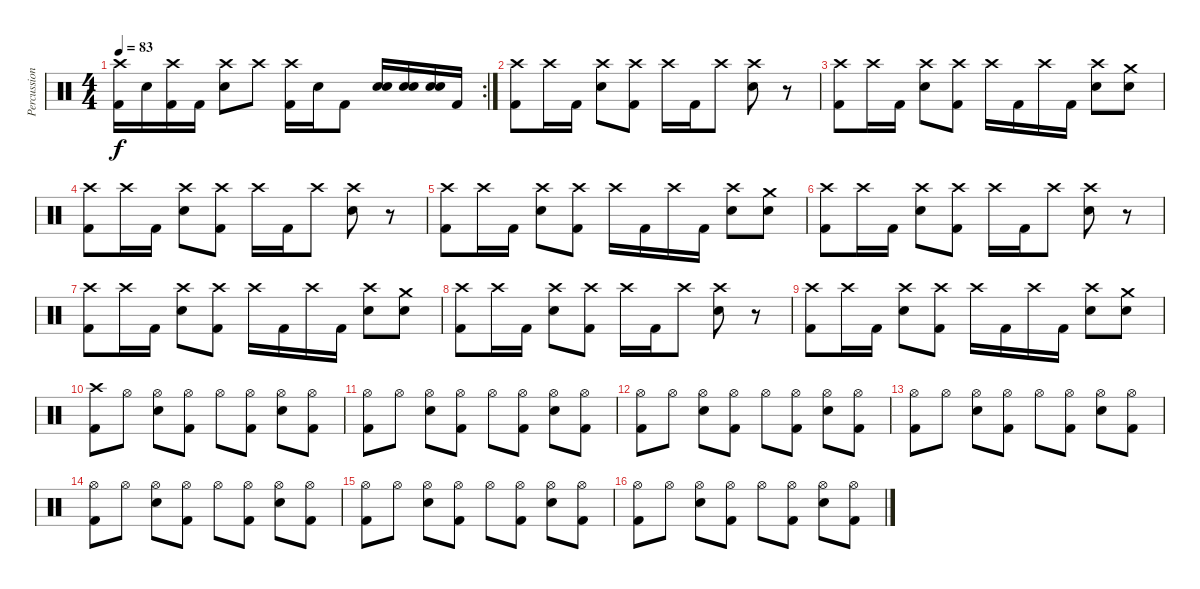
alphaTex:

\track ("Percussions" "Percussion") {instrument percussion}
\staff {score}
\articulation defaults
\rc 2
\ts (4 4)
\tempo 83
\clef neutral
\ks c
("Crash high (hit)" "Kick (hit) 2").16{dy f} "Electric Snare (hit)".16 ("Crash high (hit)" "Kick (hit) 2").16 "Kick (hit) 2".16 ("Crash high (hit)" "Electric Snare (hit)").8 "Crash high (hit)".8 ("Crash high (hit)" "Kick (hit) 2").16 "Electric Snare (hit)".16 "Kick (hit) 2".8 ("Electric Snare (hit)" "Electric Snare (hit)").16 ("Electric Snare (hit)" "Electric Snare (hit)").16 ("Electric Snare (hit)" "Electric Snare (hit)").16 "Kick (hit) 2".16 |
("Crash high (hit)" "Kick (hit) 2").8 "Crash high (hit)".16 "Kick (hit) 2".16 ("Crash high (hit)" "Electric Snare (hit)").8 ("Crash high (hit)" "Kick (hit) 2").8 "Crash high (hit)".16 "Kick (hit) 2".16 "Crash high (hit)".8 ("Crash high (hit)" "Electric Snare (hit)").8 r.8 |
("Crash high (hit)" "Kick (hit) 2").8 "Crash high (hit)".16 "Kick (hit) 2".16 ("Crash high (hit)" "Electric Snare (hit)").8 ("Crash high (hit)" "Kick (hit) 2").8 "Crash high (hit)".16 "Kick (hit) 2".16 "Crash high (hit)".16 "Kick (hit) 2".16 ("Crash high (hit)" "Electric Snare (hit)").8 ("Crash medium (hit)" "Electric Snare (hit)").8 |
("Crash high (hit)" "Kick (hit) 2").8 "Crash high (hit)".16 "Kick (hit) 2".16 ("Crash high (hit)" "Electric Snare (hit)").8 ("Crash high (hit)" "Kick (hit) 2").8 "Crash high (hit)".16 "Kick (hit) 2".16 "Crash high (hit)".8 ("Crash high (hit)" "Electric Snare (hit)").8 r.8 |
("Crash high (hit)" "Kick (hit) 2").8 "Crash high (hit)".16 "Kick (hit) 2".16 ("Crash high (hit)" "Electric Snare (hit)").8 ("Crash high (hit)" "Kick (hit) 2").8 "Crash high (hit)".16 "Kick (hit) 2".16 "Crash high (hit)".16 "Kick (hit) 2".16 ("Crash high (hit)" "Electric Snare (hit)").8 ("Crash medium (hit)" "Electric Snare (hit)").8 |
("Crash high (hit)" "Kick (hit) 2").8 "Crash high (hit)".16 "Kick (hit) 2".16 ("Crash high (hit)" "Electric Snare (hit)").8 ("Crash high (hit)" "Kick (hit) 2").8 "Crash high (hit)".16 "Kick (hit) 2".16 "Crash high (hit)".8 ("Crash high (hit)" "Electric Snare (hit)").8 r.8 |
("Crash high (hit)" "Kick (hit) 2").8 "Crash high (hit)".16 "Kick (hit) 2".16 ("Crash high (hit)" "Electric Snare (hit)").8 ("Crash high (hit)" "Kick (hit) 2").8 "Crash high (hit)".16 "Kick (hit) 2".16 "Crash high (hit)".16 "Kick (hit) 2".16 ("Crash high (hit)" "Electric Snare (hit)").8 ("Crash medium (hit)" "Electric Snare (hit)").8 |
("Crash high (hit)" "Kick (hit) 2").8 "Crash high (hit)".16 "Kick (hit) 2".16 ("Crash high (hit)" "Electric Snare (hit)").8 ("Crash high (hit)" "Kick (hit) 2").8 "Crash high (hit)".16 "Kick (hit) 2".16 "Crash high (hit)".8 ("Crash high (hit)" "Electric Snare (hit)").8 r.8 |
("Crash high (hit)" "Kick (hit) 2").8 "Crash high (hit)".16 "Kick (hit) 2".16 ("Crash high (hit)" "Electric Snare (hit)").8 ("Crash high (hit)" "Kick (hit) 2").8 "Crash high (hit)".16 "Kick (hit) 2".16 "Crash high (hit)".16 "Kick (hit) 2".16 ("Crash high (hit)" "Electric Snare (hit)").8 ("Crash medium (hit)" "Electric Snare (hit)").8 |
("Crash high (hit)" "Kick (hit) 2").8 "Hi-Hat (open)".8 ("Hi-Hat (open)" "Electric Snare (hit)").8 ("Hi-Hat (open)" "Kick (hit) 2").8 "Hi-Hat (open)".8 ("Hi-Hat (open)" "Kick (hit) 2").8 ("Hi-Hat (open)" "Electric Snare (hit)").8 ("Hi-Hat (open)" "Kick (hit) 2").8 |
("Hi-Hat (open)" "Kick (hit) 2").8 "Hi-Hat (open)".8 ("Hi-Hat (open)" "Electric Snare (hit)").8 ("Hi-Hat (open)" "Kick (hit) 2").8 "Hi-Hat (open)".8 ("Hi-Hat (open)" "Kick (hit) 2").8 ("Hi-Hat (open)" "Electric Snare (hit)").8 ("Hi-Hat (open)" "Kick (hit) 2").8 |
("Hi-Hat (open)" "Kick (hit) 2").8 "Hi-Hat (open)".8 ("Hi-Hat (open)" "Electric Snare (hit)").8 ("Hi-Hat (open)" "Kick (hit) 2").8 "Hi-Hat (open)".8 ("Hi-Hat (open)" "Kick (hit) 2").8 ("Hi-Hat (open)" "Electric Snare (hit)").8 ("Hi-Hat (open)" "Kick (hit) 2").8 |
("Hi-Hat (open)" "Kick (hit) 2").8 "Hi-Hat (open)".8 ("Hi-Hat (open)" "Electric Snare (hit)").8 ("Hi-Hat (open)" "Kick (hit) 2").8 "Hi-Hat (open)".8 ("Hi-Hat (open)" "Kick (hit) 2").8 ("Hi-Hat (open)" "Electric Snare (hit)").8 ("Hi-Hat (open)" "Kick (hit) 2").8 |
("Hi-Hat (open)" "Kick (hit) 2").8 "Hi-Hat (open)".8 ("Hi-Hat (open)" "Electric Snare (hit)").8 ("Hi-Hat (open)" "Kick (hit) 2").8 "Hi-Hat (open)".8 ("Hi-Hat (open)" "Kick (hit) 2").8 ("Hi-Hat (open)" "Electric Snare (hit)").8 ("Hi-Hat (open)" "Kick (hit) 2").8 |
("Hi-Hat (open)" "Kick (hit) 2").8 "Hi-Hat (open)".8 ("Hi-Hat (open)" "Electric Snare (hit)").8 ("Hi-Hat (open)" "Kick (hit) 2").8 "Hi-Hat (open)".8 ("Hi-Hat (open)" "Kick (hit) 2").8 ("Hi-Hat (open)" "Electric Snare (hit)").8 ("Hi-Hat (open)" "Kick (hit) 2").8 |
("Hi-Hat (open)" "Kick (hit) 2").8 "Hi-Hat (open)".8 ("Hi-Hat (open)" "Electric Snare (hit)").8 ("Hi-Hat (open)" "Kick (hit) 2").8 "Hi-Hat (open)".8 ("Hi-Hat (open)" "Kick (hit) 2").8 ("Hi-Hat (open)" "Electric Snare (hit)").8 ("Hi-Hat (open)" "Kick (hit) 2").8
